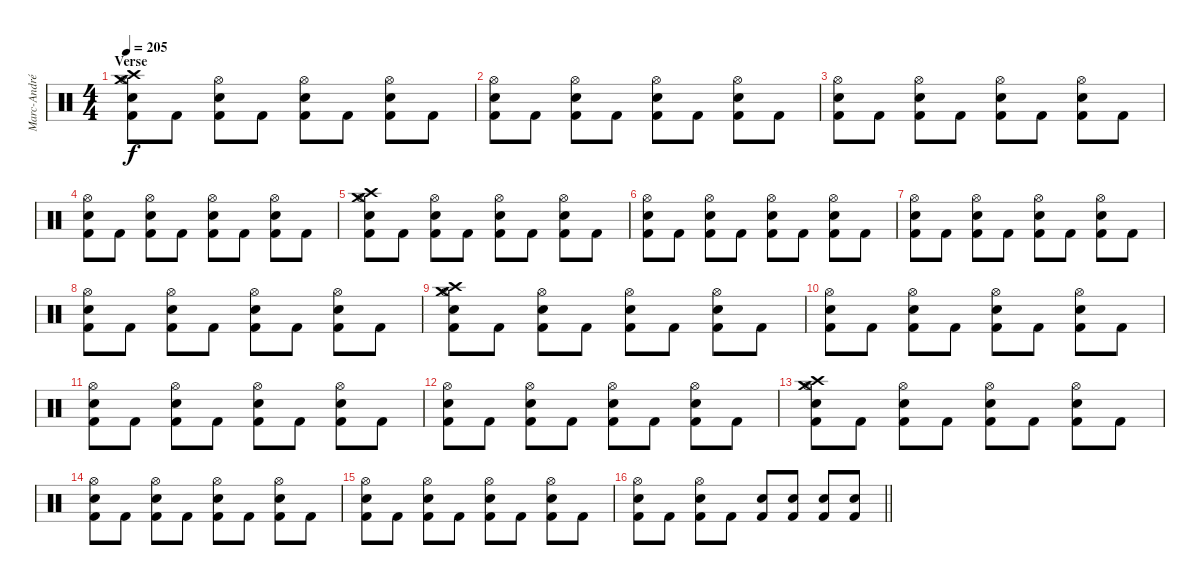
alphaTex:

\track ("Marc-André Barabé" "Marc-André") {instrument percussion}
\staff {score}
\articulation defaults
\ts (4 4)
\section ("" "Verse")
\tempo 205
\clef neutral
\ks c
("Crash high (hit)" "Crash medium (hit)" "Hi-Hat (open)" "Electric Snare (hit)" "Kick (hit) 2"{tr (36 32)}).8{dy f} "Kick (hit) 2"{tr (36 32)}.8 ("Hi-Hat (open)" "Electric Snare (hit)" "Kick (hit) 2"{tr (36 32)}).8 "Kick (hit) 2"{tr (36 32)}.8 ("Hi-Hat (open)" "Electric Snare (hit)" "Kick (hit) 2"{tr (36 32)}).8 "Kick (hit) 2"{tr (36 32)}.8 ("Hi-Hat (open)" "Electric Snare (hit)" "Kick (hit) 2"{tr (36 32)}).8 "Kick (hit) 2"{tr (36 32)}.8 |
("Hi-Hat (open)" "Electric Snare (hit)" "Kick (hit) 2"{tr (36 32)}).8 "Kick (hit) 2"{tr (36 32)}.8 ("Hi-Hat (open)" "Electric Snare (hit)" "Kick (hit) 2"{tr (36 32)}).8 "Kick (hit) 2"{tr (36 32)}.8 ("Hi-Hat (open)" "Electric Snare (hit)" "Kick (hit) 2"{tr (36 32)}).8 "Kick (hit) 2"{tr (36 32)}.8 ("Hi-Hat (open)" "Electric Snare (hit)" "Kick (hit) 2"{tr (36 32)}).8 "Kick (hit) 2"{tr (36 32)}.8 |
("Hi-Hat (open)" "Electric Snare (hit)" "Kick (hit) 2"{tr (36 32)}).8 "Kick (hit) 2"{tr (36 32)}.8 ("Hi-Hat (open)" "Electric Snare (hit)" "Kick (hit) 2"{tr (36 32)}).8 "Kick (hit) 2"{tr (36 32)}.8 ("Hi-Hat (open)" "Electric Snare (hit)" "Kick (hit) 2"{tr (36 32)}).8 "Kick (hit) 2"{tr (36 32)}.8 ("Hi-Hat (open)" "Electric Snare (hit)" "Kick (hit) 2"{tr (36 32)}).8 "Kick (hit) 2"{tr (36 32)}.8 |
("Hi-Hat (open)" "Electric Snare (hit)" "Kick (hit) 2"{tr (36 32)}).8 "Kick (hit) 2"{tr (36 32)}.8 ("Hi-Hat (open)" "Electric Snare (hit)" "Kick (hit) 2"{tr (36 32)}).8 "Kick (hit) 2"{tr (36 32)}.8 ("Hi-Hat (open)" "Electric Snare (hit)" "Kick (hit) 2"{tr (36 32)}).8 "Kick (hit) 2"{tr (36 32)}.8 ("Hi-Hat (open)" "Electric Snare (hit)" "Kick (hit) 2"{tr (36 32)}).8 "Kick (hit) 2"{tr (36 32)}.8 |
("Crash high (hit)" "Crash medium (hit)" "Hi-Hat (open)" "Electric Snare (hit)" "Kick (hit) 2"{tr (36 32)}).8 "Kick (hit) 2"{tr (36 32)}.8 ("Hi-Hat (open)" "Electric Snare (hit)" "Kick (hit) 2"{tr (36 32)}).8 "Kick (hit) 2"{tr (36 32)}.8 ("Hi-Hat (open)" "Electric Snare (hit)" "Kick (hit) 2"{tr (36 32)}).8 "Kick (hit) 2"{tr (36 32)}.8 ("Hi-Hat (open)" "Electric Snare (hit)" "Kick (hit) 2"{tr (36 32)}).8 "Kick (hit) 2"{tr (36 32)}.8 |
("Hi-Hat (open)" "Electric Snare (hit)" "Kick (hit) 2"{tr (36 32)}).8 "Kick (hit) 2"{tr (36 32)}.8 ("Hi-Hat (open)" "Electric Snare (hit)" "Kick (hit) 2"{tr (36 32)}).8 "Kick (hit) 2"{tr (36 32)}.8 ("Hi-Hat (open)" "Electric Snare (hit)" "Kick (hit) 2"{tr (36 32)}).8 "Kick (hit) 2"{tr (36 32)}.8 ("Hi-Hat (open)" "Electric Snare (hit)" "Kick (hit) 2"{tr (36 32)}).8 "Kick (hit) 2"{tr (36 32)}.8 |
("Hi-Hat (open)" "Electric Snare (hit)" "Kick (hit) 2"{tr (36 32)}).8 "Kick (hit) 2"{tr (36 32)}.8 ("Hi-Hat (open)" "Electric Snare (hit)" "Kick (hit) 2"{tr (36 32)}).8 "Kick (hit) 2"{tr (36 32)}.8 ("Hi-Hat (open)" "Electric Snare (hit)" "Kick (hit) 2"{tr (36 32)}).8 "Kick (hit) 2"{tr (36 32)}.8 ("Hi-Hat (open)" "Electric Snare (hit)" "Kick (hit) 2"{tr (36 32)}).8 "Kick (hit) 2"{tr (36 32)}.8 |
("Hi-Hat (open)" "Electric Snare (hit)" "Kick (hit) 2"{tr (36 32)}).8 "Kick (hit) 2"{tr (36 32)}.8 ("Hi-Hat (open)" "Electric Snare (hit)" "Kick (hit) 2"{tr (36 32)}).8 "Kick (hit) 2"{tr (36 32)}.8 ("Hi-Hat (open)" "Electric Snare (hit)" "Kick (hit) 2"{tr (36 32)}).8 "Kick (hit) 2"{tr (36 32)}.8 ("Hi-Hat (open)" "Electric Snare (hit)" "Kick (hit) 2"{tr (36 32)}).8 "Kick (hit) 2"{tr (36 32)}.8 |
("Crash high (hit)" "Crash medium (hit)" "Hi-Hat (open)" "Electric Snare (hit)" "Kick (hit) 2"{tr (36 32)}).8 "Kick (hit) 2"{tr (36 32)}.8 ("Hi-Hat (open)" "Electric Snare (hit)" "Kick (hit) 2"{tr (36 32)}).8 "Kick (hit) 2"{tr (36 32)}.8 ("Hi-Hat (open)" "Electric Snare (hit)" "Kick (hit) 2"{tr (36 32)}).8 "Kick (hit) 2"{tr (36 32)}.8 ("Hi-Hat (open)" "Electric Snare (hit)" "Kick (hit) 2"{tr (36 32)}).8 "Kick (hit) 2"{tr (36 32)}.8 |
("Hi-Hat (open)" "Electric Snare (hit)" "Kick (hit) 2"{tr (36 32)}).8 "Kick (hit) 2"{tr (36 32)}.8 ("Hi-Hat (open)" "Electric Snare (hit)" "Kick (hit) 2"{tr (36 32)}).8 "Kick (hit) 2"{tr (36 32)}.8 ("Hi-Hat (open)" "Electric Snare (hit)" "Kick (hit) 2"{tr (36 32)}).8 "Kick (hit) 2"{tr (36 32)}.8 ("Hi-Hat (open)" "Electric Snare (hit)" "Kick (hit) 2"{tr (36 32)}).8 "Kick (hit) 2"{tr (36 32)}.8 |
("Hi-Hat (open)" "Electric Snare (hit)" "Kick (hit) 2"{tr (36 32)}).8 "Kick (hit) 2"{tr (36 32)}.8 ("Hi-Hat (open)" "Electric Snare (hit)" "Kick (hit) 2"{tr (36 32)}).8 "Kick (hit) 2"{tr (36 32)}.8 ("Hi-Hat (open)" "Electric Snare (hit)" "Kick (hit) 2"{tr (36 32)}).8 "Kick (hit) 2"{tr (36 32)}.8 ("Hi-Hat (open)" "Electric Snare (hit)" "Kick (hit) 2"{tr (36 32)}).8 "Kick (hit) 2"{tr (36 32)}.8 |
("Hi-Hat (open)" "Electric Snare (hit)" "Kick (hit) 2"{tr (36 32)}).8 "Kick (hit) 2"{tr (36 32)}.8 ("Hi-Hat (open)" "Electric Snare (hit)" "Kick (hit) 2"{tr (36 32)}).8 "Kick (hit) 2"{tr (36 32)}.8 ("Hi-Hat (open)" "Electric Snare (hit)" "Kick (hit) 2"{tr (36 32)}).8 "Kick (hit) 2"{tr (36 32)}.8 ("Hi-Hat (open)" "Electric Snare (hit)" "Kick (hit) 2"{tr (36 32)}).8 "Kick (hit) 2"{tr (36 32)}.8 |
("Crash high (hit)" "Crash medium (hit)" "Hi-Hat (open)" "Electric Snare (hit)" "Kick (hit) 2"{tr (36 32)}).8 "Kick (hit) 2"{tr (36 32)}.8 ("Hi-Hat (open)" "Electric Snare (hit)" "Kick (hit) 2"{tr (36 32)}).8 "Kick (hit) 2"{tr (36 32)}.8 ("Hi-Hat (open)" "Electric Snare (hit)" "Kick (hit) 2"{tr (36 32)}).8 "Kick (hit) 2"{tr (36 32)}.8 ("Hi-Hat (open)" "Electric Snare (hit)" "Kick (hit) 2"{tr (36 32)}).8 "Kick (hit) 2"{tr (36 32)}.8 |
("Hi-Hat (open)" "Electric Snare (hit)" "Kick (hit) 2"{tr (36 32)}).8 "Kick (hit) 2"{tr (36 32)}.8 ("Hi-Hat (open)" "Electric Snare (hit)" "Kick (hit) 2"{tr (36 32)}).8 "Kick (hit) 2"{tr (36 32)}.8 ("Hi-Hat (open)" "Electric Snare (hit)" "Kick (hit) 2"{tr (36 32)}).8 "Kick (hit) 2"{tr (36 32)}.8 ("Hi-Hat (open)" "Electric Snare (hit)" "Kick (hit) 2"{tr (36 32)}).8 "Kick (hit) 2"{tr (36 32)}.8 |
("Hi-Hat (open)" "Electric Snare (hit)" "Kick (hit) 2"{tr (36 32)}).8 "Kick (hit) 2"{tr (36 32)}.8 ("Hi-Hat (open)" "Electric Snare (hit)" "Kick (hit) 2"{tr (36 32)}).8 "Kick (hit) 2"{tr (36 32)}.8 ("Hi-Hat (open)" "Electric Snare (hit)" "Kick (hit) 2"{tr (36 32)}).8 "Kick (hit) 2"{tr (36 32)}.8 ("Hi-Hat (open)" "Electric Snare (hit)" "Kick (hit) 2"{tr (36 32)}).8 "Kick (hit) 2"{tr (36 32)}.8 |
\barLineRight lightlight
("Hi-Hat (open)" "Electric Snare (hit)" "Kick (hit) 2").8 "Kick (hit) 2".8 ("Hi-Hat (open)" "Electric Snare (hit)" "Kick (hit) 2").8 "Kick (hit) 2".8 ("Electric Snare (hit)"{tr (4 32)} "Kick (hit) 2").8 ("Electric Snare (hit)"{tr (4 32)} "Kick (hit) 2").8 ("Electric Snare (hit)"{tr (4 32)} "Kick (hit) 2").8 ("Electric Snare (hit)"{tr (4 32)} "Kick (hit) 2").8
